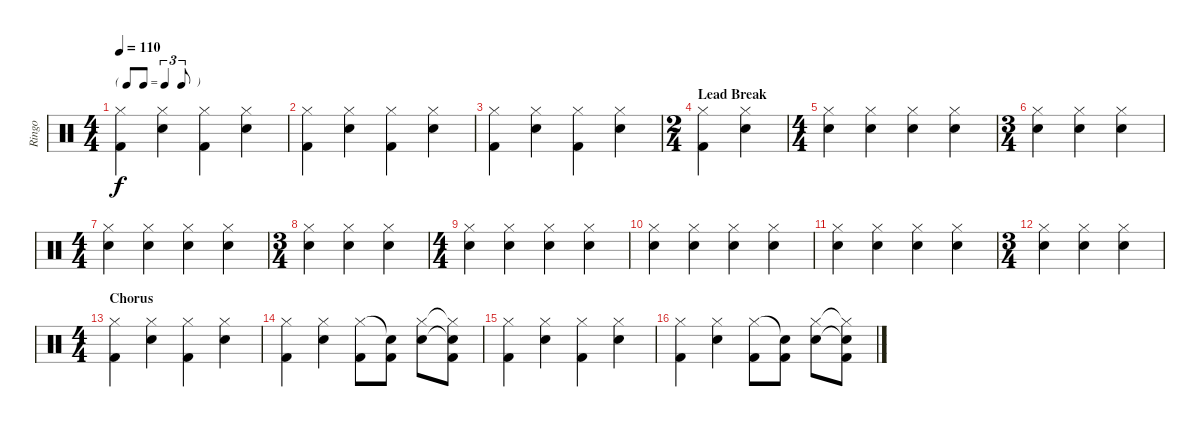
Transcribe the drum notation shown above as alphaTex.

\track ("Ringo" "Ringo") {instrument percussion}
\staff {score}
\articulation defaults
\ts (4 4)
\tf triplet8th
\tempo 110
\clef neutral
\ks c
("Hi-Hat (closed)" "Kick (hit) 2").4{dy f} ("Hi-Hat (closed)" "Snare (hit) 2").4 ("Hi-Hat (closed)" "Kick (hit) 2").4 ("Hi-Hat (closed)" "Snare (hit) 2").4 |
("Hi-Hat (closed)" "Kick (hit) 2").4 ("Hi-Hat (closed)" "Snare (hit) 2").4 ("Hi-Hat (closed)" "Kick (hit) 2").4 ("Hi-Hat (closed)" "Snare (hit) 2").4 |
("Hi-Hat (closed)" "Kick (hit) 2").4 ("Hi-Hat (closed)" "Snare (hit) 2").4 ("Hi-Hat (closed)" "Kick (hit) 2").4 ("Hi-Hat (closed)" "Snare (hit) 2").4 |
\ts (2 4)
\section ("" "Lead Break")
("Hi-Hat (closed)" "Kick (hit) 2").4 ("Hi-Hat (closed)" "Snare (hit) 2").4 |
\ts (4 4)
("Hi-Hat (closed)" "Snare (hit) 2").4 ("Hi-Hat (closed)" "Snare (hit) 2").4 ("Hi-Hat (closed)" "Snare (hit) 2").4 ("Hi-Hat (closed)" "Snare (hit) 2").4 |
\ts (3 4)
("Hi-Hat (closed)" "Snare (hit) 2").4 ("Hi-Hat (closed)" "Snare (hit) 2").4 ("Hi-Hat (closed)" "Snare (hit) 2").4 |
\ts (4 4)
("Hi-Hat (closed)" "Snare (hit) 2").4 ("Hi-Hat (closed)" "Snare (hit) 2").4 ("Hi-Hat (closed)" "Snare (hit) 2").4 ("Hi-Hat (closed)" "Snare (hit) 2").4 |
\ts (3 4)
("Hi-Hat (closed)" "Snare (hit) 2").4 ("Hi-Hat (closed)" "Snare (hit) 2").4 ("Hi-Hat (closed)" "Snare (hit) 2").4 |
\ts (4 4)
("Hi-Hat (closed)" "Snare (hit) 2").4 ("Hi-Hat (closed)" "Snare (hit) 2").4 ("Hi-Hat (closed)" "Snare (hit) 2").4 ("Hi-Hat (closed)" "Snare (hit) 2").4 |
("Hi-Hat (closed)" "Snare (hit) 2").4 ("Hi-Hat (closed)" "Snare (hit) 2").4 ("Hi-Hat (closed)" "Snare (hit) 2").4 ("Hi-Hat (closed)" "Snare (hit) 2").4 |
("Hi-Hat (closed)" "Snare (hit) 2").4 ("Hi-Hat (closed)" "Snare (hit) 2").4 ("Hi-Hat (closed)" "Snare (hit) 2").4 ("Hi-Hat (closed)" "Snare (hit) 2").4 |
\ts (3 4)
("Hi-Hat (closed)" "Snare (hit) 2").4 ("Hi-Hat (closed)" "Snare (hit) 2").4 ("Hi-Hat (closed)" "Snare (hit) 2").4 |
\ts (4 4)
\section ("" "Chorus")
("Hi-Hat (closed)" "Kick (hit) 2").4 ("Hi-Hat (closed)" "Snare (hit) 2").4 ("Hi-Hat (closed)" "Kick (hit) 2").4 ("Hi-Hat (closed)" "Snare (hit) 2").4 |
("Hi-Hat (closed)" "Kick (hit) 2").4 ("Hi-Hat (closed)" "Snare (hit) 2").4 ("Hi-Hat (closed)" "Kick (hit) 2").8 ("Snare (hit)"{t} "Kick (hit) 2").8 ("Hi-Hat (closed)" "Snare (hit) 2").8 ("Hi-Hat (closed)"{t} "Snare (hit) 2"{t} "Kick (hit) 2").8 |
("Hi-Hat (closed)" "Kick (hit) 2").4 ("Hi-Hat (closed)" "Snare (hit) 2").4 ("Hi-Hat (closed)" "Kick (hit) 2").4 ("Hi-Hat (closed)" "Snare (hit) 2").4 |
("Hi-Hat (closed)" "Kick (hit) 2").4 ("Hi-Hat (closed)" "Snare (hit) 2").4 ("Hi-Hat (closed)" "Kick (hit) 2").8 ("Snare (hit)"{t} "Kick (hit) 2").8 ("Hi-Hat (closed)" "Snare (hit) 2").8 ("Hi-Hat (closed)"{t} "Snare (hit) 2"{t} "Kick (hit) 2").8
